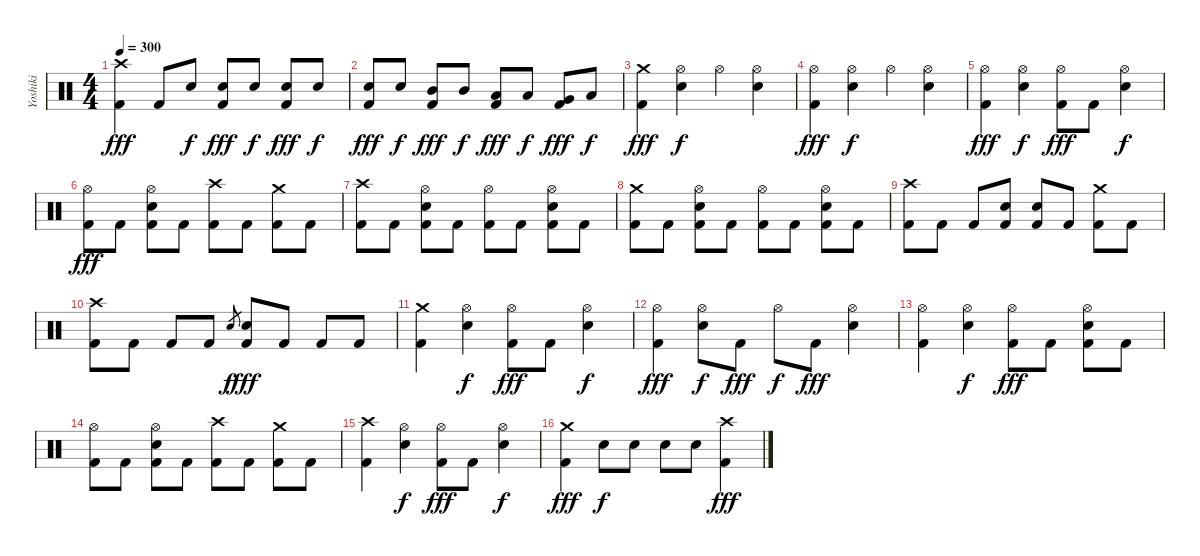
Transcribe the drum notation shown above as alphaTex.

\track ("Yoshiki" "Yoshiki") {instrument percussion}
\staff {score}
\articulation defaults
\ts (4 4)
\tempo 300
\clef neutral
\ks c
("Crash high (hit)" "Kick (hit) 2").4{dy fff} "Kick (hit) 2".8 "Snare (hit) 2".8{dy f} ("Snare (hit) 2" "Kick (hit) 2").8{dy fff} "Snare (hit) 2".8{dy f} ("Snare (hit) 2" "Kick (hit) 2").8{dy fff} "Snare (hit) 2".8{dy f} |
("Snare (hit) 2" "Kick (hit) 2").8{dy fff} "Snare (hit) 2".8{dy f} ("Mid Tom (hit)" "Kick (hit) 2").8{dy fff} "Mid Tom (hit)".8{dy f} ("Low Tom (hit)" "Kick (hit) 2").8{dy fff} "Low Tom (hit)".8{dy f} ("Very Low Tom (hit)" "Kick (hit) 2").8{dy fff} "Low Floor Tom (hit)".8{dy f} |
("Crash medium (hit)" "Kick (hit) 2").4{dy fff} ("Hi-Hat (open)" "Snare (hit) 2").4{dy f} "Hi-Hat (open)".4 ("Hi-Hat (open)" "Snare (hit) 2").4 |
("Hi-Hat (open)" "Kick (hit) 2").4{dy fff} ("Hi-Hat (open)" "Snare (hit) 2").4{dy f} "Hi-Hat (open)".4 ("Hi-Hat (open)" "Snare (hit) 2").4 |
("Hi-Hat (open)" "Kick (hit) 2").4{dy fff} ("Hi-Hat (open)" "Snare (hit) 2").4{dy f} ("Hi-Hat (open)" "Kick (hit) 2").8{dy fff} "Kick (hit) 2".8 ("Hi-Hat (open)" "Snare (hit) 2").4{dy f} |
("Hi-Hat (open)" "Kick (hit) 2").8{dy fff} "Kick (hit) 2".8 ("Hi-Hat (open)" "Snare (hit) 2" "Kick (hit) 2").8 "Kick (hit) 2".8 ("Crash high (hit)" "Kick (hit) 2").8 "Kick (hit) 2".8 ("Crash medium (hit)" "Kick (hit) 2").8 "Kick (hit) 2".8 |
("Crash high (hit)" "Kick (hit) 2").8 "Kick (hit) 2".8 ("Hi-Hat (open)" "Snare (hit) 2" "Kick (hit) 2").8 "Kick (hit) 2".8 ("Hi-Hat (open)" "Kick (hit) 2").8 "Kick (hit) 2".8 ("Hi-Hat (open)" "Snare (hit) 2" "Kick (hit) 2").8 "Kick (hit) 2".8 |
("Crash medium (hit)" "Kick (hit) 2").8 "Kick (hit) 2".8 ("Hi-Hat (open)" "Snare (hit) 2" "Kick (hit) 2").8 "Kick (hit) 2".8 ("Hi-Hat (open)" "Kick (hit) 2").8 "Kick (hit) 2".8 ("Hi-Hat (open)" "Snare (hit) 2" "Kick (hit) 2").8 "Kick (hit) 2".8 |
("Crash high (hit)" "Kick (hit) 2").8 "Kick (hit) 2".8 "Kick (hit) 2".8 ("Snare (hit) 2" "Kick (hit) 2").8 ("Snare (hit) 2" "Kick (hit) 2").8 "Kick (hit) 2".8 ("Crash medium (hit)" "Kick (hit) 2").8 "Kick (hit) 2".8 |
("Crash high (hit)" "Kick (hit) 2").8 "Kick (hit) 2".8 "Kick (hit) 2".8 "Kick (hit) 2".8 "Snare (hit) 2".8{gr dy f} ("Snare (hit) 2" "Kick (hit) 2").8{dy fff} "Kick (hit) 2".8 "Kick (hit) 2".8 "Kick (hit) 2".8 |
("Crash medium (hit)" "Kick (hit) 2").4 ("Hi-Hat (open)" "Snare (hit) 2").4{dy f} ("Hi-Hat (open)" "Kick (hit) 2").8{dy fff} "Kick (hit) 2".8 ("Hi-Hat (open)" "Snare (hit) 2").4{dy f} |
("Hi-Hat (open)" "Kick (hit) 2").4{dy fff} ("Hi-Hat (open)" "Snare (hit) 2").8{dy f} "Kick (hit) 2".8{dy fff} "Hi-Hat (open)".8{dy f} "Kick (hit) 2".8{dy fff} ("Hi-Hat (open)" "Snare (hit) 2").4 |
("Hi-Hat (open)" "Kick (hit) 2").4 ("Hi-Hat (open)" "Snare (hit) 2").4{dy f} ("Hi-Hat (open)" "Kick (hit) 2").8{dy fff} "Kick (hit) 2".8 ("Hi-Hat (open)" "Snare (hit) 2" "Kick (hit) 2").8 "Kick (hit) 2".8 |
("Hi-Hat (open)" "Kick (hit) 2").8 "Kick (hit) 2".8 ("Hi-Hat (open)" "Snare (hit) 2" "Kick (hit) 2").8 "Kick (hit) 2".8 ("Crash high (hit)" "Kick (hit) 2").8 "Kick (hit) 2".8 ("Crash medium (hit)" "Kick (hit) 2").8 "Kick (hit) 2".8 |
("Crash high (hit)" "Kick (hit) 2").4 ("Hi-Hat (open)" "Snare (hit) 2").4{dy f} ("Hi-Hat (open)" "Kick (hit) 2").8{dy fff} "Kick (hit) 2".8 ("Hi-Hat (open)" "Snare (hit) 2").4{dy f} |
("Crash medium (hit)" "Kick (hit) 2").4{dy fff} "Snare (hit) 2".8{dy f} "Snare (hit) 2".8 "Snare (hit) 2".8 "Snare (hit) 2".8 ("Crash high (hit)" "Kick (hit) 2").4{dy fff}
